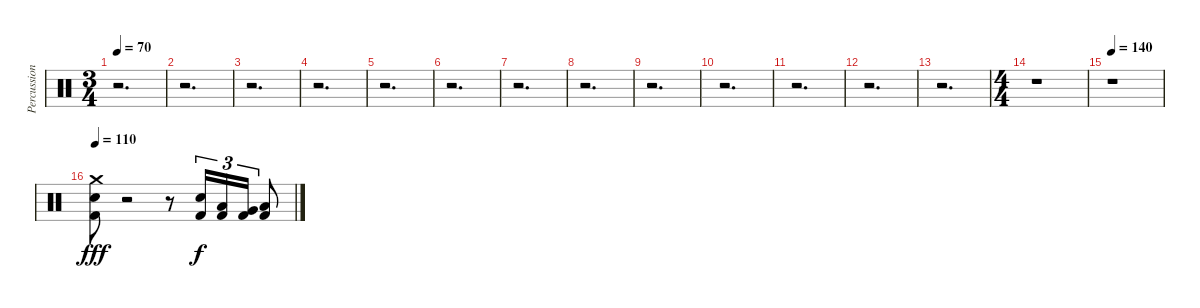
\track ("Percussions" "Percussion") {instrument percussion}
\staff {score}
\articulation defaults
\ts (3 4)
\tempo 70
\clef neutral
\ks c
r.2{d dy fff} |
r.2{d} |
r.2{d} |
r.2{d} |
r.2{d} |
r.2{d} |
r.2{d} |
r.2{d} |
r.2{d} |
r.2{d} |
r.2{d} |
r.2{d} |
r.2{d} |
\ts (4 4)
r.1 |
\tempo 140
r.1 |
\tempo 110
("Kick (hit) 2" "Snare (hit) 2" "Crash medium (hit)").8 r.2 r.8 ("Kick (hit) 2" "Snare (hit) 2").16{tu (3 2) dy f} ("Kick (hit) 2" "Low Tom (hit)").16{tu (3 2)} ("Kick (hit) 2" "Very Low Tom (hit)").16{tu (3 2)} ("Kick (hit) 2" "Low Floor Tom (hit)").8
